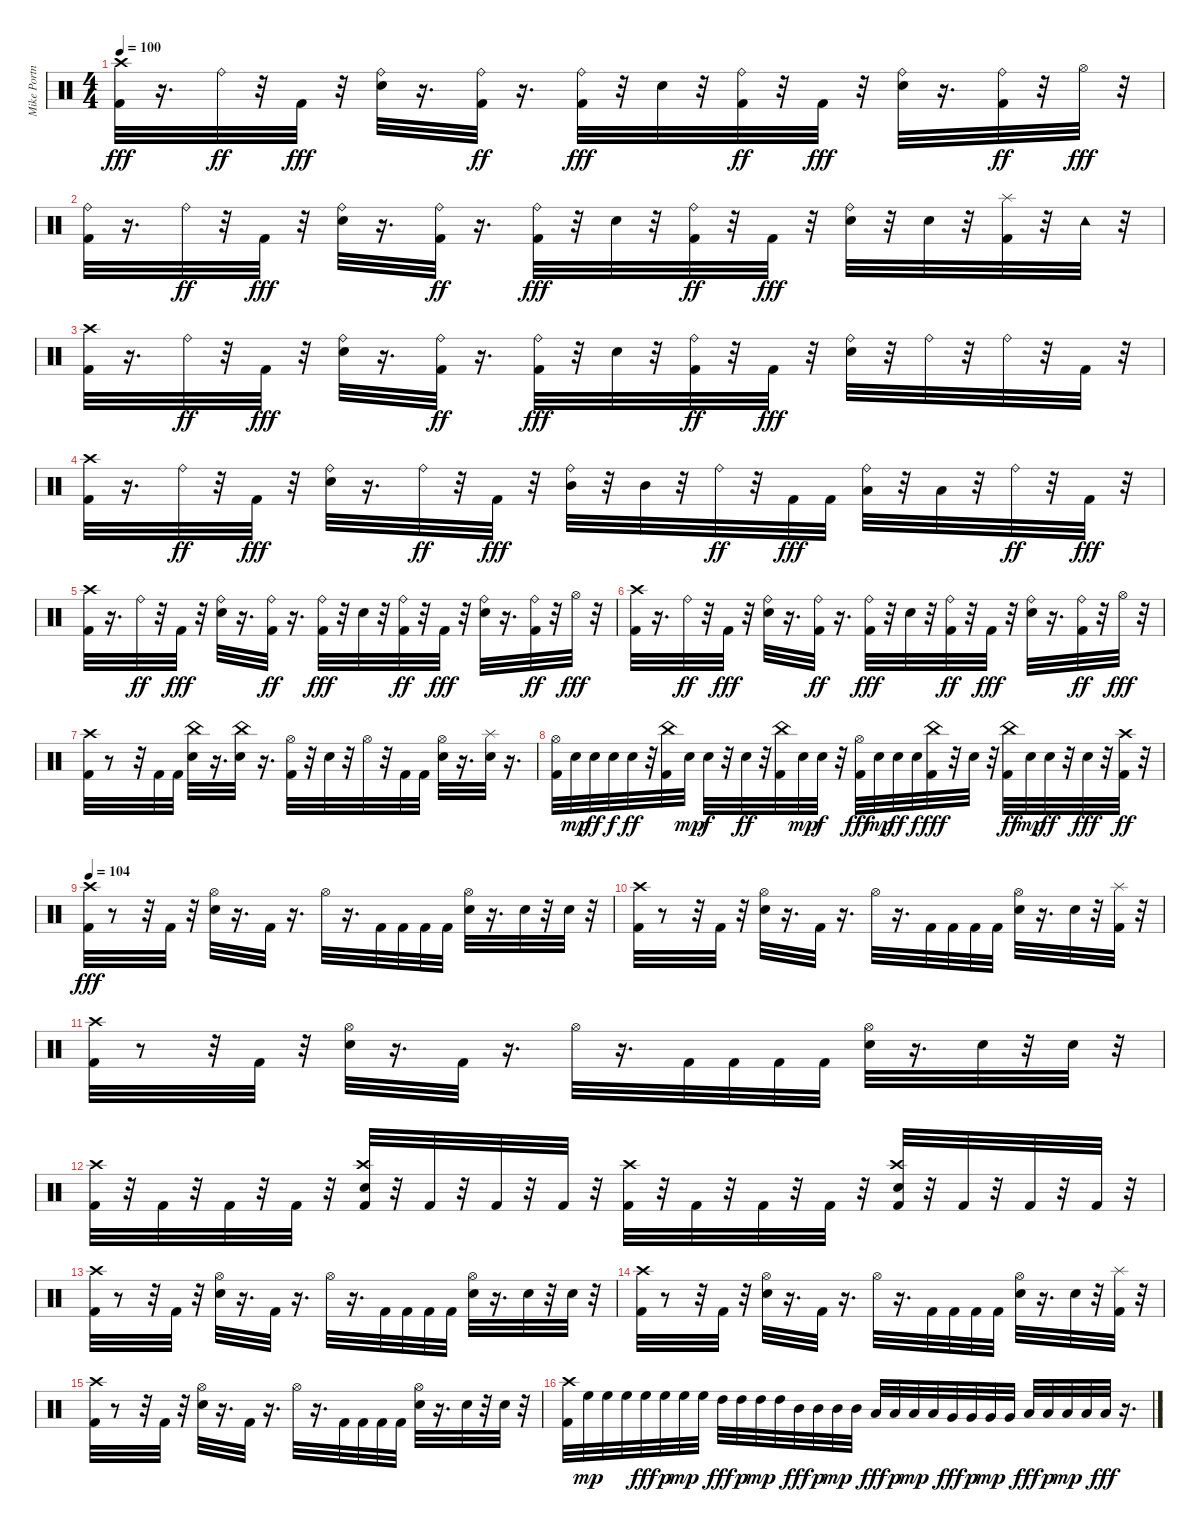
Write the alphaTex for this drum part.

\track ("Mike Portnoy" "Mike Portn") {instrument percussion}
\staff {score}
\articulation defaults
\ts (4 4)
\tempo 100
\clef neutral
\ks c
("Kick (hit) 2" "Crash high (hit)").32{dy fff} r.16{d} "Ride (bell)".32{dy ff} r.32 "Kick (hit) 2".32{dy fff} r.32 ("Ride (bell)" "Snare (hit) 2").32 r.16{d} ("Kick (hit) 2" "Ride (bell)").32{dy ff} r.16{d} ("Kick (hit) 2" "Ride (bell)").32{dy fff} r.32 "Snare (hit) 2".32 r.32 ("Kick (hit) 2" "Ride (bell)").32{dy ff} r.32 "Kick (hit) 2".32{dy fff} r.32 ("Ride (bell)" "Snare (hit) 2").32 r.16{d} ("Kick (hit) 2" "Ride (bell)").32{dy ff} r.32 "Hi-Hat (open)".32{dy fff} r.32 |
("Kick (hit) 2" "Ride (bell)").32 r.16{d} "Ride (bell)".32{dy ff} r.32 "Kick (hit) 2".32{dy fff} r.32 ("Ride (bell)" "Snare (hit) 2").32 r.16{d} ("Kick (hit) 2" "Ride (bell)").32{dy ff} r.16{d} ("Kick (hit) 2" "Ride (bell)").32{dy fff} r.32 "Snare (hit) 2".32 r.32 ("Kick (hit) 2" "Ride (bell)").32{dy ff} r.32 "Kick (hit) 2".32{dy fff} r.32 ("Ride (bell)" "Snare (hit) 2").32 r.32 "Snare (hit) 2".32 r.32 ("Kick (hit) 2" "Splash (hit)").32 r.32 "Tambourine (hit)".32 r.32 |
("Kick (hit) 2" "Crash high (hit)").32 r.16{d} "Ride (bell)".32{dy ff} r.32 "Kick (hit) 2".32{dy fff} r.32 ("Ride (bell)" "Snare (hit) 2").32 r.16{d} ("Kick (hit) 2" "Ride (bell)").32{dy ff} r.16{d} ("Kick (hit) 2" "Ride (bell)").32{dy fff} r.32 "Snare (hit) 2".32 r.32 ("Kick (hit) 2" "Ride (bell)").32{dy ff} r.32 "Kick (hit) 2".32{dy fff} r.32 ("Ride (bell)" "Snare (hit) 2").32 r.32 "Ride (bell)".32 r.32 "Ride (bell)".32 r.32 "Kick (hit) 2".32 r.32 |
("Kick (hit) 2" "Crash high (hit)").32 r.16{d} "Ride (bell)".32{dy ff} r.32 "Kick (hit) 2".32{dy fff} r.32 ("Ride (bell)" "Snare (hit) 2").32 r.16{d} "Ride (bell)".32{dy ff} r.32 "Kick (hit) 2".32{dy fff} r.32 ("Ride (bell)" "Mid Tom (hit)").32 r.32 "Mid Tom (hit)".32 r.32 "Ride (bell)".32{dy ff} r.32 "Kick (hit) 2".32{dy fff} "Kick (hit) 2".32 ("Ride (bell)" "Low Tom (hit)").32 r.32 "Low Tom (hit)".32 r.32 "Ride (bell)".32{dy ff} r.32 "Kick (hit) 2".32{dy fff} r.32 |
("Kick (hit) 2" "Crash high (hit)").32 r.16{d} "Ride (bell)".32{dy ff} r.32 "Kick (hit) 2".32{dy fff} r.32 ("Ride (bell)" "Snare (hit) 2").32 r.16{d} ("Kick (hit) 2" "Ride (bell)").32{dy ff} r.16{d} ("Kick (hit) 2" "Ride (bell)").32{dy fff} r.32 "Snare (hit) 2".32 r.32 ("Kick (hit) 2" "Ride (bell)").32{dy ff} r.32 "Kick (hit) 2".32{dy fff} r.32 ("Ride (bell)" "Snare (hit) 2").32 r.16{d} ("Kick (hit) 2" "Ride (bell)").32{dy ff} r.32 "Hi-Hat (open)".32{dy fff} r.32 |
("Kick (hit) 2" "Crash high (hit)").32 r.16{d} "Ride (bell)".32{dy ff} r.32 "Kick (hit) 2".32{dy fff} r.32 ("Ride (bell)" "Snare (hit) 2").32 r.16{d} ("Kick (hit) 2" "Ride (bell)").32{dy ff} r.16{d} ("Kick (hit) 2" "Ride (bell)").32{dy fff} r.32 "Snare (hit) 2".32 r.32 ("Kick (hit) 2" "Ride (bell)").32{dy ff} r.32 "Kick (hit) 2".32{dy fff} r.32 ("Ride (bell)" "Snare (hit) 2").32 r.16{d} ("Kick (hit) 2" "Ride (bell)").32{dy ff} r.32 "Hi-Hat (open)".32{dy fff} r.32 |
("Kick (hit) 2" "Crash high (hit)").32 r.8 r.32 "Kick (hit) 2".32 "Kick (hit) 2".32 ("Snare (hit) 2" "China (hit)").32 r.16{d} ("Snare (hit) 2" "China (hit)").32 r.16{d} ("Kick (hit) 2" "Hi-Hat (open)").32 r.32 "Snare (hit) 2".32 r.32 "Hi-Hat (open)".32 r.32 "Kick (hit) 2".32 "Kick (hit) 2".32 ("Snare (hit) 2" "Hi-Hat (open)").32 r.16{d} ("Snare (hit) 2" "Splash (hit)").32 r.16{d} |
("Kick (hit) 2" "Hi-Hat (open)").32 "Snare (hit) 2".32{dy mp} "Snare (hit) 2".32{dy ff} "Snare (hit) 2".32{dy f} "Snare (hit) 2".32{dy ff} r.32 ("Kick (hit) 2" "China (hit)").32 "Snare (hit) 2".32{dy mp} "Snare (hit) 2".32{dy f} r.32 "Snare (hit) 2".32{dy ff} r.32 ("Kick (hit) 2" "China (hit)").32 "Snare (hit) 2".32{dy mp} "Snare (hit) 2".32{dy f} r.32 ("Kick (hit) 2" "Hi-Hat (open)").32{dy fff} "Snare (hit) 2".32{dy mp} "Snare (hit) 2".32{dy ff} "Snare (hit) 2".32{dy f} ("Kick (hit) 2" "China (hit)").32{dy fff} r.32 "Snare (hit) 2".32 r.32 ("Kick (hit) 2" "China (hit)").32{dy ff} "Snare (hit) 2".32{dy mp} "Snare (hit) 2".32{dy ff} r.32 "Snare (hit) 2".32{dy fff} r.32 ("Kick (hit) 2" "Crash high (hit)").32{dy ff} r.32 |
\tempo 104
("Kick (hit) 2" "Crash high (hit)").32{dy fff} r.8 r.32 "Kick (hit) 2".32 r.32 ("Hi-Hat (open)" "Snare (hit) 2").32 r.16{d} "Kick (hit) 2".32 r.16{d} "Hi-Hat (open)".32 r.16{d} "Kick (hit) 2".32 "Kick (hit) 2".32 "Kick (hit) 2".32 "Kick (hit) 2".32 ("Hi-Hat (open)" "Snare (hit) 2").32 r.16{d} "Snare (hit) 2".32 r.32 "Snare (hit) 2".32 r.32 |
("Kick (hit) 2" "Crash high (hit)").32 r.8 r.32 "Kick (hit) 2".32 r.32 ("Hi-Hat (open)" "Snare (hit) 2").32 r.16{d} "Kick (hit) 2".32 r.16{d} "Hi-Hat (open)".32 r.16{d} "Kick (hit) 2".32 "Kick (hit) 2".32 "Kick (hit) 2".32 "Kick (hit) 2".32 ("Hi-Hat (open)" "Snare (hit) 2").32 r.16{d} "Snare (hit) 2".32 r.32 ("Kick (hit) 2" "Splash (hit)").32 r.32 |
("Kick (hit) 2" "Crash high (hit)").32 r.8 r.32 "Kick (hit) 2".32 r.32 ("Hi-Hat (open)" "Snare (hit) 2").32 r.16{d} "Kick (hit) 2".32 r.16{d} "Hi-Hat (open)".32 r.16{d} "Kick (hit) 2".32 "Kick (hit) 2".32 "Kick (hit) 2".32 "Kick (hit) 2".32 ("Hi-Hat (open)" "Snare (hit) 2").32 r.16{d} "Snare (hit) 2".32 r.32 "Snare (hit) 2".32 r.32 |
("Kick (hit) 2" "Crash high (hit)").32 r.32 "Kick (hit) 2".32 r.32 "Kick (hit) 2".32 r.32 "Kick (hit) 2".32 r.32 ("Kick (hit) 2" "Crash high (hit)" "Snare (hit) 2").32 r.32 "Kick (hit) 2".32 r.32 "Kick (hit) 2".32 r.32 "Kick (hit) 2".32 r.32 ("Kick (hit) 2" "Crash high (hit)").32 r.32 "Kick (hit) 2".32 r.32 "Kick (hit) 2".32 r.32 "Kick (hit) 2".32 r.32 ("Kick (hit) 2" "Crash high (hit)" "Snare (hit) 2").32 r.32 "Kick (hit) 2".32 r.32 "Kick (hit) 2".32 r.32 "Kick (hit) 2".32 r.32 |
("Kick (hit) 2" "Crash high (hit)").32 r.8 r.32 "Kick (hit) 2".32 r.32 ("Hi-Hat (open)" "Snare (hit) 2").32 r.16{d} "Kick (hit) 2".32 r.16{d} "Hi-Hat (open)".32 r.16{d} "Kick (hit) 2".32 "Kick (hit) 2".32 "Kick (hit) 2".32 "Kick (hit) 2".32 ("Hi-Hat (open)" "Snare (hit) 2").32 r.16{d} "Snare (hit) 2".32 r.32 "Snare (hit) 2".32 r.32 |
("Kick (hit) 2" "Crash high (hit)").32 r.8 r.32 "Kick (hit) 2".32 r.32 ("Hi-Hat (open)" "Snare (hit) 2").32 r.16{d} "Kick (hit) 2".32 r.16{d} "Hi-Hat (open)".32 r.16{d} "Kick (hit) 2".32 "Kick (hit) 2".32 "Kick (hit) 2".32 "Kick (hit) 2".32 ("Hi-Hat (open)" "Snare (hit) 2").32 r.16{d} "Snare (hit) 2".32 r.32 ("Kick (hit) 2" "Splash (hit)").32 r.32 |
("Kick (hit) 2" "Crash high (hit)").32 r.8 r.32 "Kick (hit) 2".32 r.32 ("Hi-Hat (open)" "Snare (hit) 2").32 r.16{d} "Kick (hit) 2".32 r.16{d} "Hi-Hat (open)".32 r.16{d} "Kick (hit) 2".32 "Kick (hit) 2".32 "Kick (hit) 2".32 "Kick (hit) 2".32 ("Hi-Hat (open)" "Snare (hit) 2").32 r.16{d} "Snare (hit) 2".32 r.32 "Snare (hit) 2".32 r.32 |
("Kick (hit) 2" "Crash high (hit)").32 "High Floor Tom (hit)".32{dy mp} "High Floor Tom (hit)".32 "High Floor Tom (hit)".32 "High Floor Tom (hit)".32{dy fff} "High Floor Tom (hit)".32{dy p} "High Floor Tom (hit)".32{dy mp} "High Floor Tom (hit)".32 "High Tom (hit)".32{dy fff} "High Tom (hit)".32{dy p} "High Tom (hit)".32{dy mp} "High Tom (hit)".32 "Mid Tom (hit)".32{dy fff} "Mid Tom (hit)".32{dy p} "Mid Tom (hit)".32{dy mp} "Mid Tom (hit)".32 "Low Tom (hit)".32{dy fff} "Low Tom (hit)".32{dy p} "Low Tom (hit)".32{dy mp} "Low Tom (hit)".32 "Very Low Tom (hit)".32{dy fff} "Very Low Tom (hit)".32{dy p} "Very Low Tom (hit)".32{dy mp} "Very Low Tom (hit)".32 "Low Floor Tom (hit)".32{dy fff} "Low Floor Tom (hit)".32{dy p} "Low Floor Tom (hit)".32{dy mp} "Low Floor Tom (hit)".32 "Low Floor Tom (hit)".32{dy fff} r.16{d}
